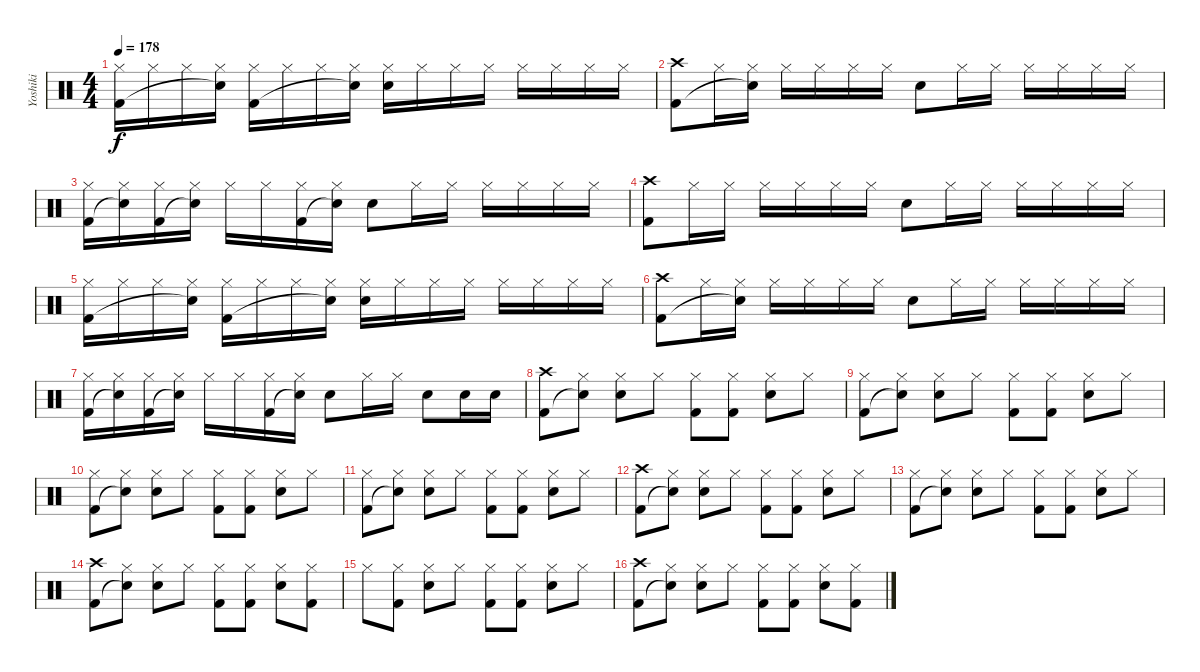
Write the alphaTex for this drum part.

\track ("Yoshiki" "Yoshiki") {instrument percussion}
\staff {score}
\articulation defaults
\ts (4 4)
\tempo 178
\clef neutral
\ks c
("Hi-Hat (closed)" "Kick (hit) 2").16{dy f} "Hi-Hat (closed)".16 "Hi-Hat (closed)".16 ("Hi-Hat (closed)" "Snare (hit)"{t}).16 ("Hi-Hat (closed)" "Kick (hit) 2").16 "Hi-Hat (closed)".16 "Hi-Hat (closed)".16 ("Hi-Hat (closed)" "Snare (hit)"{t}).16 ("Hi-Hat (closed)" "Snare (hit) 2").16 "Hi-Hat (closed)".16 "Hi-Hat (closed)".16 "Hi-Hat (closed)".16 "Hi-Hat (closed)".16 "Hi-Hat (closed)".16 "Hi-Hat (closed)".16 "Hi-Hat (closed)".16 |
("Crash high (hit)" "Kick (hit) 2").8 "Hi-Hat (closed)".16 ("Hi-Hat (closed)" "Snare (hit)"{t}).16 "Hi-Hat (closed)".16 "Hi-Hat (closed)".16 "Hi-Hat (closed)".16 "Hi-Hat (closed)".16 "Snare (hit) 2".8 "Hi-Hat (closed)".16 "Hi-Hat (closed)".16 "Hi-Hat (closed)".16 "Hi-Hat (closed)".16 "Hi-Hat (closed)".16 "Hi-Hat (closed)".16 |
("Hi-Hat (closed)" "Kick (hit) 2").16 ("Hi-Hat (closed)" "Snare (hit)"{t}).16 ("Hi-Hat (closed)" "Kick (hit) 2").16 ("Hi-Hat (closed)" "Snare (hit)"{t}).16 "Hi-Hat (closed)".16 "Hi-Hat (closed)".16 ("Hi-Hat (closed)" "Kick (hit) 2").16 ("Hi-Hat (closed)" "Snare (hit)"{t}).16 "Snare (hit) 2".8 "Hi-Hat (closed)".16 "Hi-Hat (closed)".16 "Hi-Hat (closed)".16 "Hi-Hat (closed)".16 "Hi-Hat (closed)".16 "Hi-Hat (closed)".16 |
("Crash high (hit)" "Kick (hit) 2").8 "Hi-Hat (closed)".16 "Hi-Hat (closed)".16 "Hi-Hat (closed)".16 "Hi-Hat (closed)".16 "Hi-Hat (closed)".16 "Hi-Hat (closed)".16 "Snare (hit) 2".8 "Hi-Hat (closed)".16 "Hi-Hat (closed)".16 "Hi-Hat (closed)".16 "Hi-Hat (closed)".16 "Hi-Hat (closed)".16 "Hi-Hat (closed)".16 |
("Hi-Hat (closed)" "Kick (hit) 2").16 "Hi-Hat (closed)".16 "Hi-Hat (closed)".16 ("Hi-Hat (closed)" "Snare (hit)"{t}).16 ("Hi-Hat (closed)" "Kick (hit) 2").16 "Hi-Hat (closed)".16 "Hi-Hat (closed)".16 ("Hi-Hat (closed)" "Snare (hit)"{t}).16 ("Hi-Hat (closed)" "Snare (hit) 2").16 "Hi-Hat (closed)".16 "Hi-Hat (closed)".16 "Hi-Hat (closed)".16 "Hi-Hat (closed)".16 "Hi-Hat (closed)".16 "Hi-Hat (closed)".16 "Hi-Hat (closed)".16 |
("Crash high (hit)" "Kick (hit) 2").8 "Hi-Hat (closed)".16 ("Hi-Hat (closed)" "Snare (hit)"{t}).16 "Hi-Hat (closed)".16 "Hi-Hat (closed)".16 "Hi-Hat (closed)".16 "Hi-Hat (closed)".16 "Snare (hit) 2".8 "Hi-Hat (closed)".16 "Hi-Hat (closed)".16 "Hi-Hat (closed)".16 "Hi-Hat (closed)".16 "Hi-Hat (closed)".16 "Hi-Hat (closed)".16 |
("Hi-Hat (closed)" "Kick (hit) 2").16 ("Hi-Hat (closed)" "Snare (hit)"{t}).16 ("Hi-Hat (closed)" "Kick (hit) 2").16 ("Hi-Hat (closed)" "Snare (hit)"{t}).16 "Hi-Hat (closed)".16 "Hi-Hat (closed)".16 ("Hi-Hat (closed)" "Kick (hit) 2").16 ("Hi-Hat (closed)" "Snare (hit)"{t}).16 "Snare (hit) 2".8 "Hi-Hat (closed)".16 "Hi-Hat (closed)".16 "Snare (hit) 2".8 "Snare (hit) 2".16 "Snare (hit) 2".16 |
("Crash high (hit)" "Kick (hit) 2").8 ("Hi-Hat (closed)" "Snare (hit)"{t}).8 ("Hi-Hat (closed)" "Snare (hit) 2").8 "Hi-Hat (closed)".8 ("Hi-Hat (closed)" "Kick (hit) 2").8 ("Hi-Hat (closed)" "Kick (hit) 2").8 ("Hi-Hat (closed)" "Snare (hit) 2").8 "Hi-Hat (closed)".8 |
("Hi-Hat (closed)" "Kick (hit) 2").8 ("Hi-Hat (closed)" "Snare (hit)"{t}).8 ("Hi-Hat (closed)" "Snare (hit) 2").8 "Hi-Hat (closed)".8 ("Hi-Hat (closed)" "Kick (hit) 2").8 ("Hi-Hat (closed)" "Kick (hit) 2").8 ("Hi-Hat (closed)" "Snare (hit) 2").8 "Hi-Hat (closed)".8 |
("Hi-Hat (closed)" "Kick (hit) 2").8 ("Hi-Hat (closed)" "Snare (hit)"{t}).8 ("Hi-Hat (closed)" "Snare (hit) 2").8 "Hi-Hat (closed)".8 ("Hi-Hat (closed)" "Kick (hit) 2").8 ("Hi-Hat (closed)" "Kick (hit) 2").8 ("Hi-Hat (closed)" "Snare (hit) 2").8 "Hi-Hat (closed)".8 |
("Hi-Hat (closed)" "Kick (hit) 2").8 ("Hi-Hat (closed)" "Snare (hit)"{t}).8 ("Hi-Hat (closed)" "Snare (hit) 2").8 "Hi-Hat (closed)".8 ("Hi-Hat (closed)" "Kick (hit) 2").8 ("Hi-Hat (closed)" "Kick (hit) 2").8 ("Hi-Hat (closed)" "Snare (hit) 2").8 "Hi-Hat (closed)".8 |
("Crash high (hit)" "Kick (hit) 2").8 ("Hi-Hat (closed)" "Snare (hit)"{t}).8 ("Hi-Hat (closed)" "Snare (hit) 2").8 "Hi-Hat (closed)".8 ("Hi-Hat (closed)" "Kick (hit) 2").8 ("Hi-Hat (closed)" "Kick (hit) 2").8 ("Hi-Hat (closed)" "Snare (hit) 2").8 "Hi-Hat (closed)".8 |
("Hi-Hat (closed)" "Kick (hit) 2").8 ("Hi-Hat (closed)" "Snare (hit)"{t}).8 ("Hi-Hat (closed)" "Snare (hit) 2").8 "Hi-Hat (closed)".8 ("Hi-Hat (closed)" "Kick (hit) 2").8 ("Hi-Hat (closed)" "Kick (hit) 2").8 ("Hi-Hat (closed)" "Snare (hit) 2").8 "Hi-Hat (closed)".8 |
("Crash high (hit)" "Kick (hit) 2").8 ("Hi-Hat (closed)" "Snare (hit)"{t}).8 ("Hi-Hat (closed)" "Snare (hit) 2").8 "Hi-Hat (closed)".8 ("Hi-Hat (closed)" "Kick (hit) 2").8 ("Hi-Hat (closed)" "Kick (hit) 2").8 ("Hi-Hat (closed)" "Snare (hit) 2").8 ("Hi-Hat (closed)" "Kick (hit) 2").8 |
"Hi-Hat (closed)".8 ("Hi-Hat (closed)" "Kick (hit) 2").8 ("Hi-Hat (closed)" "Snare (hit) 2").8 "Hi-Hat (closed)".8 ("Hi-Hat (closed)" "Kick (hit) 2").8 ("Hi-Hat (closed)" "Kick (hit) 2").8 ("Hi-Hat (closed)" "Snare (hit) 2").8 "Hi-Hat (closed)".8 |
("Crash high (hit)" "Kick (hit) 2").8 ("Hi-Hat (closed)" "Snare (hit)"{t}).8 ("Hi-Hat (closed)" "Snare (hit) 2").8 "Hi-Hat (closed)".8 ("Hi-Hat (closed)" "Kick (hit) 2").8 ("Hi-Hat (closed)" "Kick (hit) 2").8 ("Hi-Hat (closed)" "Snare (hit) 2").8 ("Hi-Hat (closed)" "Kick (hit) 2").8
